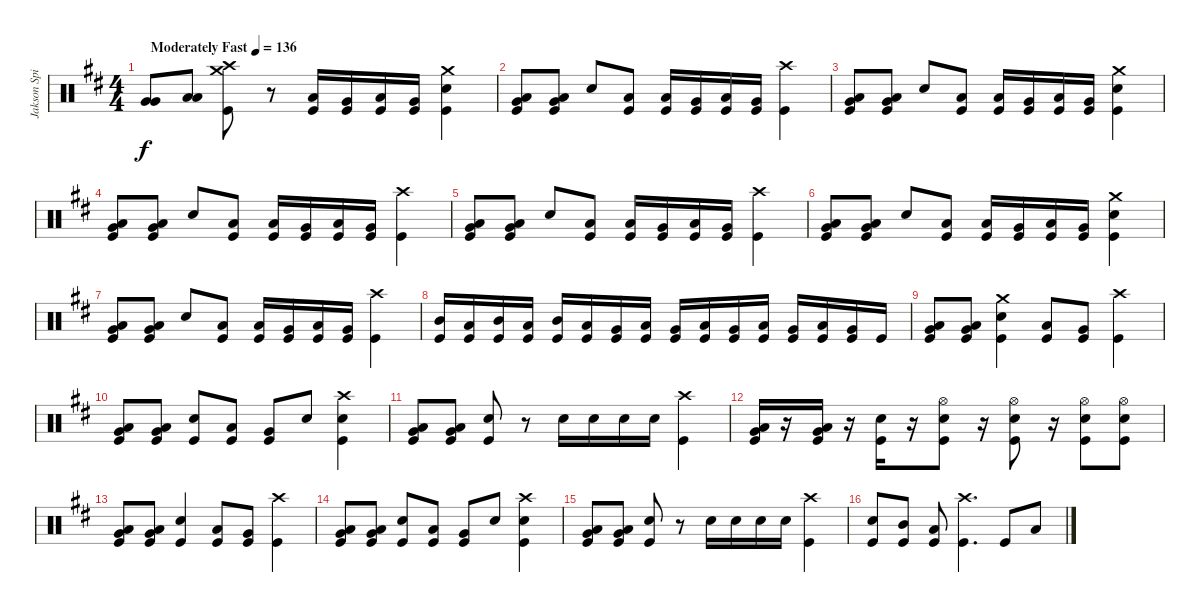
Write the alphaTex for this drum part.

\track ("Jakson Spires Drums" "Jakson Spi") {instrument percussion}
\staff {score}
\articulation defaults
\ts (4 4)
\tempo (136 "Moderately Fast")
\clef neutral
\ks d
("Very Low Tom (hit)" "Very Low Tom (hit)").8{dy f} ("Low Tom (hit)" "Low Tom (hit)").8 ("Crash high (hit)" "Crash medium (hit)" "Kick (hit)").8 r.8 ("Low Tom (hit)" "Kick (hit)").16 ("Very Low Tom (hit)" "Kick (hit)").16 ("Low Tom (hit)" "Kick (hit)").16 ("Very Low Tom (hit)" "Kick (hit)").16 ("Crash medium (hit)" "Snare (hit) 2" "Kick (hit)").4 |
("Very Low Tom (hit)" "Low Floor Tom (hit)" "Kick (hit)").8 ("Very Low Tom (hit)" "Low Floor Tom (hit)" "Kick (hit)").8 "Snare (hit) 2".8 ("Low Tom (hit)" "Kick (hit)").8 ("Low Tom (hit)" "Kick (hit)").16 ("Very Low Tom (hit)" "Kick (hit)").16 ("Low Tom (hit)" "Kick (hit)").16 ("Very Low Tom (hit)" "Kick (hit)").16 ("Crash high (hit)" "Kick (hit)").4 |
("Very Low Tom (hit)" "Low Floor Tom (hit)" "Kick (hit)").8 ("Very Low Tom (hit)" "Low Floor Tom (hit)" "Kick (hit)").8 "Snare (hit) 2".8 ("Low Tom (hit)" "Kick (hit)").8 ("Low Tom (hit)" "Kick (hit)").16 ("Very Low Tom (hit)" "Kick (hit)").16 ("Low Tom (hit)" "Kick (hit)").16 ("Very Low Tom (hit)" "Kick (hit)").16 ("Crash medium (hit)" "Snare (hit) 2" "Kick (hit)").4 |
("Very Low Tom (hit)" "Low Floor Tom (hit)" "Kick (hit)").8 ("Very Low Tom (hit)" "Low Floor Tom (hit)" "Kick (hit)").8 "Snare (hit) 2".8 ("Low Tom (hit)" "Kick (hit)").8 ("Low Tom (hit)" "Kick (hit)").16 ("Very Low Tom (hit)" "Kick (hit)").16 ("Low Tom (hit)" "Kick (hit)").16 ("Very Low Tom (hit)" "Kick (hit)").16 ("Crash high (hit)" "Kick (hit)").4 |
("Very Low Tom (hit)" "Low Floor Tom (hit)" "Kick (hit)").8 ("Very Low Tom (hit)" "Low Floor Tom (hit)" "Kick (hit)").8 "Snare (hit) 2".8 ("Low Tom (hit)" "Kick (hit)").8 ("Low Tom (hit)" "Kick (hit)").16 ("Very Low Tom (hit)" "Kick (hit)").16 ("Low Tom (hit)" "Kick (hit)").16 ("Very Low Tom (hit)" "Kick (hit)").16 ("Crash high (hit)" "Kick (hit)").4 |
("Very Low Tom (hit)" "Low Floor Tom (hit)" "Kick (hit)").8 ("Very Low Tom (hit)" "Low Floor Tom (hit)" "Kick (hit)").8 "Snare (hit) 2".8 ("Low Tom (hit)" "Kick (hit)").8 ("Low Tom (hit)" "Kick (hit)").16 ("Very Low Tom (hit)" "Kick (hit)").16 ("Low Tom (hit)" "Kick (hit)").16 ("Very Low Tom (hit)" "Kick (hit)").16 ("Crash medium (hit)" "Snare (hit) 2" "Kick (hit)").4 |
("Very Low Tom (hit)" "Low Floor Tom (hit)" "Kick (hit)").8 ("Very Low Tom (hit)" "Low Floor Tom (hit)" "Kick (hit)").8 "Snare (hit) 2".8 ("Low Tom (hit)" "Kick (hit)").8 ("Low Tom (hit)" "Kick (hit)").16 ("Very Low Tom (hit)" "Kick (hit)").16 ("Low Tom (hit)" "Kick (hit)").16 ("Very Low Tom (hit)" "Kick (hit)").16 ("Crash high (hit)" "Kick (hit)").4 |
("Mid Tom (hit)" "Kick (hit)").16 ("Low Tom (hit)" "Kick (hit)").16 ("Mid Tom (hit)" "Kick (hit)").16 ("Low Tom (hit)" "Kick (hit)").16 ("Mid Tom (hit)" "Kick (hit)").16 ("Low Tom (hit)" "Kick (hit)").16 ("Very Low Tom (hit)" "Kick (hit)").16 ("Low Tom (hit)" "Kick (hit)").16 ("Very Low Tom (hit)" "Kick (hit)").16 ("Low Tom (hit)" "Kick (hit)").16 ("Very Low Tom (hit)" "Kick (hit)").16 ("Low Floor Tom (hit)" "Kick (hit)").16 ("Very Low Tom (hit)" "Kick (hit)").16 ("Low Floor Tom (hit)" "Kick (hit)").16 ("Very Low Tom (hit)" "Kick (hit)").16 "Kick (hit)".16 |
("Very Low Tom (hit)" "Low Floor Tom (hit)" "Kick (hit)").8 ("Very Low Tom (hit)" "Low Floor Tom (hit)" "Kick (hit)").8 ("Crash medium (hit)" "Snare (hit) 2" "Kick (hit)").4 ("Low Tom (hit)" "Kick (hit)").8 ("Very Low Tom (hit)" "Kick (hit)").8 ("Crash high (hit)" "Kick (hit)").4 |
("Very Low Tom (hit)" "Low Floor Tom (hit)" "Kick (hit)").8 ("Very Low Tom (hit)" "Low Floor Tom (hit)" "Kick (hit)").8 ("Snare (hit) 2" "Kick (hit)").8 ("Low Tom (hit)" "Kick (hit)").8 ("Very Low Tom (hit)" "Kick (hit)").8 "Snare (hit) 2".8 ("Crash high (hit)" "Snare (hit) 2" "Kick (hit)").4 |
("Very Low Tom (hit)" "Low Floor Tom (hit)" "Kick (hit)").8 ("Very Low Tom (hit)" "Low Floor Tom (hit)" "Kick (hit)").8 ("Snare (hit) 2" "Kick (hit)").8 r.8 "Snare (hit) 2".16 "Snare (hit) 2".16 "Snare (hit) 2".16 "Snare (hit) 2".16 ("Crash high (hit)" "Kick (hit)").4 |
("Very Low Tom (hit)" "Low Floor Tom (hit)" "Kick (hit)").16 r.16 ("Very Low Tom (hit)" "Low Floor Tom (hit)" "Kick (hit)").16 r.16 ("Snare (hit) 2" "Kick (hit)").16 r.16 ("Hi-Hat (open)" "Snare (hit) 2" "Kick (hit)").8 r.16 ("Hi-Hat (open)" "Snare (hit) 2" "Kick (hit)").8 r.16 ("Hi-Hat (open)" "Snare (hit) 2" "Kick (hit)").8 ("Hi-Hat (open)" "Snare (hit) 2" "Kick (hit)").8 |
("Very Low Tom (hit)" "Low Floor Tom (hit)" "Kick (hit)").8 ("Very Low Tom (hit)" "Low Floor Tom (hit)" "Kick (hit)").8 ("Snare (hit) 2" "Kick (hit)").4 ("Low Tom (hit)" "Kick (hit)").8 ("Very Low Tom (hit)" "Kick (hit)").8 ("Crash high (hit)" "Kick (hit)").4 |
("Very Low Tom (hit)" "Low Floor Tom (hit)" "Kick (hit)").8 ("Very Low Tom (hit)" "Low Floor Tom (hit)" "Kick (hit)").8 ("Snare (hit) 2" "Kick (hit)").8 ("Low Tom (hit)" "Kick (hit)").8 ("Very Low Tom (hit)" "Kick (hit)").8 "Snare (hit) 2".8 ("Crash high (hit)" "Snare (hit) 2" "Kick (hit)").4 |
("Very Low Tom (hit)" "Low Floor Tom (hit)" "Kick (hit)").8 ("Very Low Tom (hit)" "Low Floor Tom (hit)" "Kick (hit)").8 ("Snare (hit) 2" "Kick (hit)").8 r.8 "Snare (hit) 2".16 "Snare (hit) 2".16 "Snare (hit) 2".16 "Snare (hit) 2".16 ("Crash high (hit)" "Kick (hit)").4 |
("Snare (hit) 2" "Kick (hit)").8 ("Mid Tom (hit)" "Kick (hit)").8 ("Low Tom (hit)" "Kick (hit)").8 ("Crash high (hit)" "Kick (hit)").4{d} "Kick (hit)".8 "Low Tom (hit)".8
